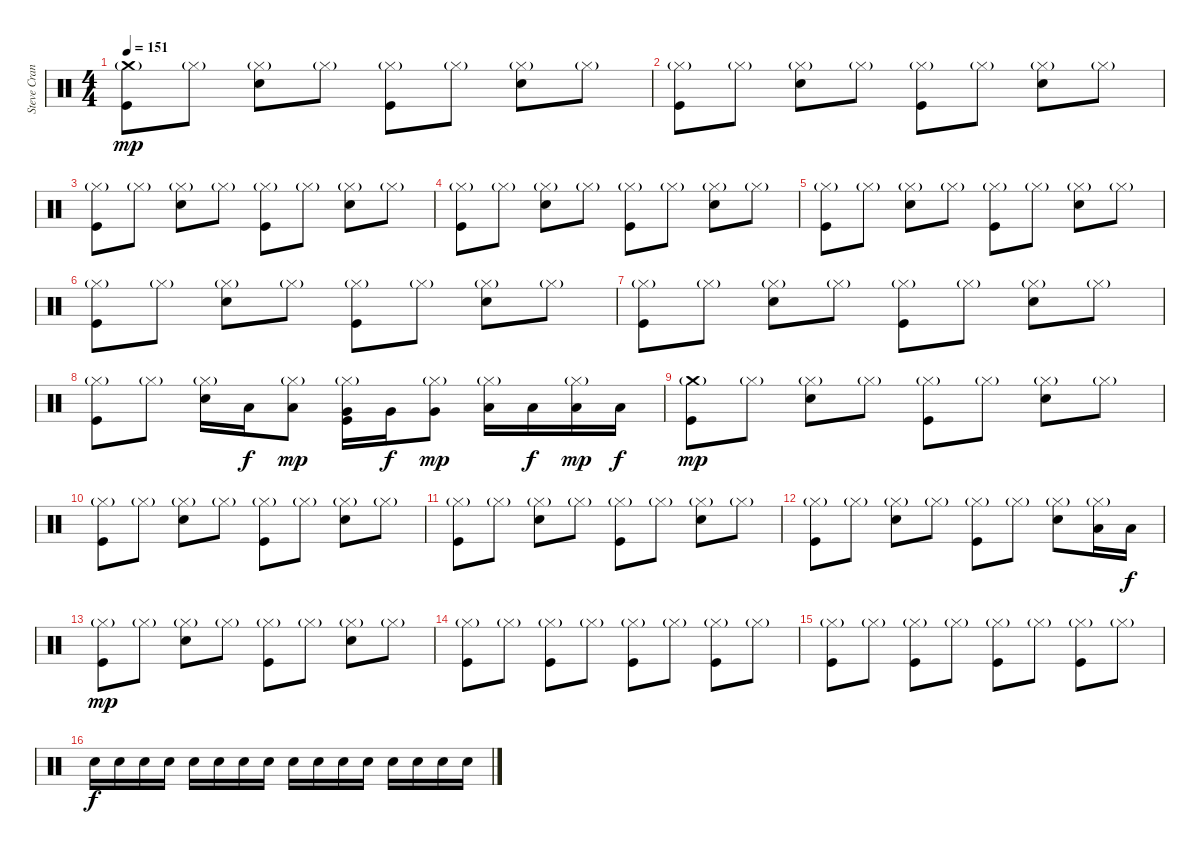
\track ("Steve Crane" "Steve Cran") {instrument percussion}
\staff {score}
\articulation defaults
\ts (4 4)
\tempo 151
\clef neutral
\ks c
("Crash medium (hit)"{g} "Kick (hit)").8{dy mp} "Hi-Hat (closed)"{g}.8 ("Hi-Hat (closed)"{g} "Snare (hit) 2").8 "Hi-Hat (closed)"{g}.8 ("Hi-Hat (closed)"{g} "Kick (hit)").8 "Hi-Hat (closed)"{g}.8 ("Hi-Hat (closed)"{g} "Snare (hit) 2").8 "Hi-Hat (closed)"{g}.8 |
("Hi-Hat (closed)"{g} "Kick (hit)").8 "Hi-Hat (closed)"{g}.8 ("Hi-Hat (closed)"{g} "Snare (hit) 2").8 "Hi-Hat (closed)"{g}.8 ("Hi-Hat (closed)"{g} "Kick (hit)").8 "Hi-Hat (closed)"{g}.8 ("Hi-Hat (closed)"{g} "Snare (hit) 2").8 "Hi-Hat (closed)"{g}.8 |
("Hi-Hat (closed)"{g} "Kick (hit)").8 "Hi-Hat (closed)"{g}.8 ("Hi-Hat (closed)"{g} "Snare (hit) 2").8 "Hi-Hat (closed)"{g}.8 ("Hi-Hat (closed)"{g} "Kick (hit)").8 "Hi-Hat (closed)"{g}.8 ("Hi-Hat (closed)"{g} "Snare (hit) 2").8 "Hi-Hat (closed)"{g}.8 |
("Hi-Hat (closed)"{g} "Kick (hit)").8 "Hi-Hat (closed)"{g}.8 ("Hi-Hat (closed)"{g} "Snare (hit) 2").8 "Hi-Hat (closed)"{g}.8 ("Hi-Hat (closed)"{g} "Kick (hit)").8 "Hi-Hat (closed)"{g}.8 ("Hi-Hat (closed)"{g} "Snare (hit) 2").8 "Hi-Hat (closed)"{g}.8 |
("Hi-Hat (closed)"{g} "Kick (hit)").8 "Hi-Hat (closed)"{g}.8 ("Hi-Hat (closed)"{g} "Snare (hit) 2").8 "Hi-Hat (closed)"{g}.8 ("Hi-Hat (closed)"{g} "Kick (hit)").8 "Hi-Hat (closed)"{g}.8 ("Hi-Hat (closed)"{g} "Snare (hit) 2").8 "Hi-Hat (closed)"{g}.8 |
("Hi-Hat (closed)"{g} "Kick (hit)").8 "Hi-Hat (closed)"{g}.8 ("Hi-Hat (closed)"{g} "Snare (hit) 2").8 "Hi-Hat (closed)"{g}.8 ("Hi-Hat (closed)"{g} "Kick (hit)").8 "Hi-Hat (closed)"{g}.8 ("Hi-Hat (closed)"{g} "Snare (hit) 2").8 "Hi-Hat (closed)"{g}.8 |
("Hi-Hat (closed)"{g} "Kick (hit)").8 "Hi-Hat (closed)"{g}.8 ("Hi-Hat (closed)"{g} "Snare (hit) 2").8 "Hi-Hat (closed)"{g}.8 ("Hi-Hat (closed)"{g} "Kick (hit)").8 "Hi-Hat (closed)"{g}.8 ("Hi-Hat (closed)"{g} "Snare (hit) 2").8 "Hi-Hat (closed)"{g}.8 |
("Hi-Hat (closed)"{g} "Kick (hit)").8 "Hi-Hat (closed)"{g}.8 ("Hi-Hat (closed)"{g} "Snare (hit) 2").16 "Low Tom (hit)".16{dy f} ("Hi-Hat (closed)"{g} "Low Tom (hit)").8{dy mp} ("Hi-Hat (closed)"{g} "Very Low Tom (hit)" "Kick (hit)").16 "Very Low Tom (hit)".16{dy f} ("Hi-Hat (closed)"{g} "Very Low Tom (hit)").8{dy mp} ("Hi-Hat (closed)"{g} "Low Floor Tom (hit)").16 "Low Floor Tom (hit)".16{dy f} ("Hi-Hat (closed)"{g} "Low Floor Tom (hit)").16{dy mp} "Low Floor Tom (hit)".16{dy f} |
("Crash medium (hit)"{g} "Kick (hit)").8{dy mp} "Hi-Hat (closed)"{g}.8 ("Hi-Hat (closed)"{g} "Snare (hit) 2").8 "Hi-Hat (closed)"{g}.8 ("Hi-Hat (closed)"{g} "Kick (hit)").8 "Hi-Hat (closed)"{g}.8 ("Hi-Hat (closed)"{g} "Snare (hit) 2").8 "Hi-Hat (closed)"{g}.8 |
("Hi-Hat (closed)"{g} "Kick (hit)").8 "Hi-Hat (closed)"{g}.8 ("Hi-Hat (closed)"{g} "Snare (hit) 2").8 "Hi-Hat (closed)"{g}.8 ("Hi-Hat (closed)"{g} "Kick (hit)").8 "Hi-Hat (closed)"{g}.8 ("Hi-Hat (closed)"{g} "Snare (hit) 2").8 "Hi-Hat (closed)"{g}.8 |
("Hi-Hat (closed)"{g} "Kick (hit)").8 "Hi-Hat (closed)"{g}.8 ("Hi-Hat (closed)"{g} "Snare (hit) 2").8 "Hi-Hat (closed)"{g}.8 ("Hi-Hat (closed)"{g} "Kick (hit)").8 "Hi-Hat (closed)"{g}.8 ("Hi-Hat (closed)"{g} "Snare (hit) 2").8 "Hi-Hat (closed)"{g}.8 |
("Hi-Hat (closed)"{g} "Kick (hit)").8 "Hi-Hat (closed)"{g}.8 ("Hi-Hat (closed)"{g} "Snare (hit) 2").8 "Hi-Hat (closed)"{g}.8 ("Hi-Hat (closed)"{g} "Kick (hit)").8 "Hi-Hat (closed)"{g}.8 ("Hi-Hat (closed)"{g} "Snare (hit) 2").8 ("Hi-Hat (closed)"{g} "Low Tom (hit)").16 "Low Tom (hit)".16{dy f} |
("Hi-Hat (closed)"{g} "Kick (hit)").8{dy mp} "Hi-Hat (closed)"{g}.8 ("Hi-Hat (closed)"{g} "Snare (hit) 2").8 "Hi-Hat (closed)"{g}.8 ("Hi-Hat (closed)"{g} "Kick (hit)").8 "Hi-Hat (closed)"{g}.8 ("Hi-Hat (closed)"{g} "Snare (hit) 2").8 "Hi-Hat (closed)"{g}.8 |
("Hi-Hat (closed)"{g} "Kick (hit)").8 "Hi-Hat (closed)"{g}.8 ("Hi-Hat (closed)"{g} "Kick (hit)").8 "Hi-Hat (closed)"{g}.8 ("Hi-Hat (closed)"{g} "Kick (hit)").8 "Hi-Hat (closed)"{g}.8 ("Hi-Hat (closed)"{g} "Kick (hit)").8 "Hi-Hat (closed)"{g}.8 |
("Hi-Hat (closed)"{g} "Kick (hit)").8 "Hi-Hat (closed)"{g}.8 ("Hi-Hat (closed)"{g} "Kick (hit)").8 "Hi-Hat (closed)"{g}.8 ("Hi-Hat (closed)"{g} "Kick (hit)").8 "Hi-Hat (closed)"{g}.8 ("Hi-Hat (closed)"{g} "Kick (hit)").8 "Hi-Hat (closed)"{g}.8 |
"Snare (hit) 2".16{dy f} "Snare (hit) 2".16 "Snare (hit) 2".16 "Snare (hit) 2".16 "Snare (hit) 2".16 "Snare (hit) 2".16 "Snare (hit) 2".16 "Snare (hit) 2".16 "Snare (hit) 2".16 "Snare (hit) 2".16 "Snare (hit) 2".16 "Snare (hit) 2".16 "Snare (hit) 2".16 "Snare (hit) 2".16 "Snare (hit) 2".16 "Snare (hit) 2".16
